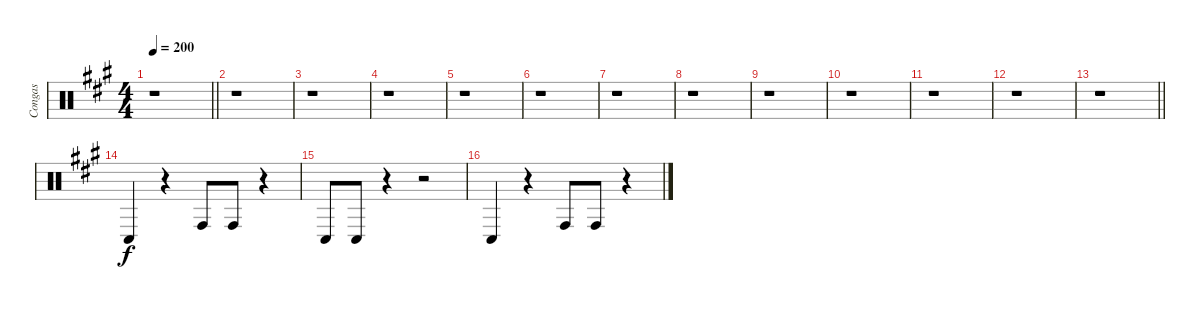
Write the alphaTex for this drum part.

\track ("Congas" "Congas") {instrument percussion}
\staff {score}
\articulation defaults
\ts (4 4)
\tempo 200
\clef neutral
\barLineRight lightlight
\ks a
r.1{dy f} |
\section ("" "")
r.1 |
r.1 |
r.1 |
r.1 |
r.1 |
r.1 |
r.1 |
r.1 |
r.1 |
r.1 |
r.1 |
\barLineRight lightlight
r.1 |
\section ("" "")
"Conga low (hit)".4 r.4 "Conga high (hit)".8 "Conga high (hit)".8 r.4 |
"Conga low (hit)".8 "Conga low (hit)".8 r.4 r.2 |
"Conga low (hit)".4 r.4 "Conga high (hit)".8 "Conga high (hit)".8 r.4
